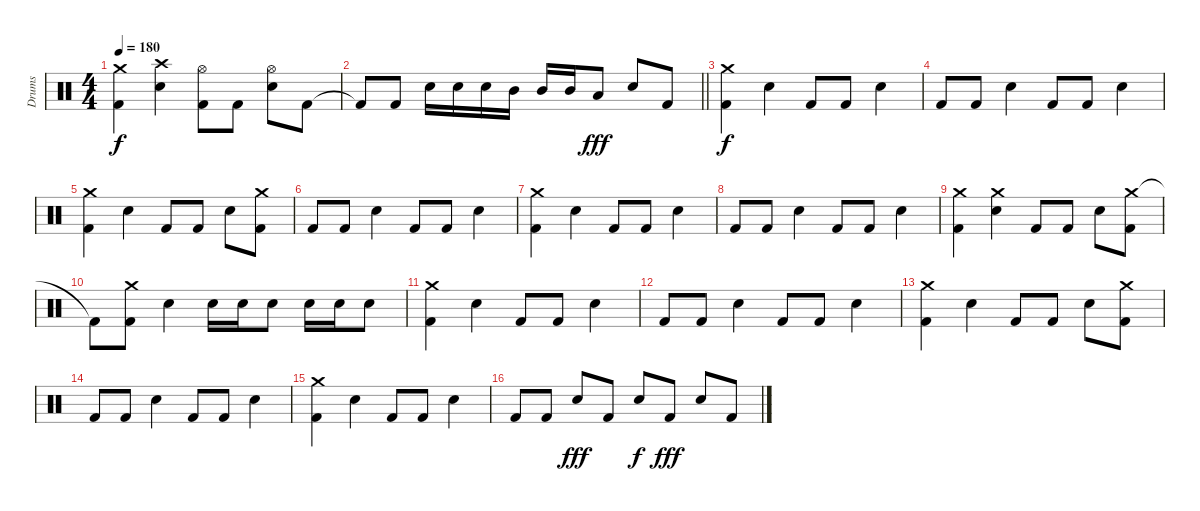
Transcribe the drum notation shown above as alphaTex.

\track ("Drums" "Drums") {instrument percussion}
\staff {score}
\articulation defaults
\ts (4 4)
\tempo 180
\clef neutral
\ks c
("Crash medium (hit)" "Kick (hit) 2").4{dy f} ("Crash high (hit)" "Electric Snare (hit)").4 ("Hi-Hat (open)" "Kick (hit) 2").8 "Kick (hit) 2".8 ("Hi-Hat (open)" "Electric Snare (hit)").8 "Kick (hit) 2".8 |
\barLineRight lightlight "Kick (hit) 2"{t}.8 "Kick (hit) 2".8 "Electric Snare (hit)".16 "Electric Snare (hit)".16 "Electric Snare (hit)".16 "Mid Tom (hit)".16 "Mid Tom (hit)".16 "Mid Tom (hit)".16 "Low Tom (hit)".8{dy fff} "Electric Snare (hit)".8 "Kick (hit) 2".8
|
("Crash medium (hit)" "Kick (hit) 2").4{dy f} "Electric Snare (hit)".4 "Kick (hit) 2".8 "Kick (hit) 2".8 "Electric Snare (hit)".4 |
"Kick (hit) 2".8 "Kick (hit) 2".8 "Electric Snare (hit)".4 "Kick (hit) 2".8 "Kick (hit) 2".8 "Electric Snare (hit)".4 |
("Crash medium (hit)" "Kick (hit) 2").4 "Electric Snare (hit)".4 "Kick (hit) 2".8 "Kick (hit) 2".8 "Electric Snare (hit)".8 ("Crash medium (hit)" "Kick (hit) 2").8 |
"Kick (hit) 2".8 "Kick (hit) 2".8 "Electric Snare (hit)".4 "Kick (hit) 2".8 "Kick (hit) 2".8 "Electric Snare (hit)".4 |
("Crash medium (hit)" "Kick (hit) 2").4 "Electric Snare (hit)".4 "Kick (hit) 2".8 "Kick (hit) 2".8 "Electric Snare (hit)".4 |
"Kick (hit) 2".8 "Kick (hit) 2".8 "Electric Snare (hit)".4 "Kick (hit) 2".8 "Kick (hit) 2".8 "Electric Snare (hit)".4 |
("Crash medium (hit)" "Kick (hit) 2").4 ("Crash medium (hit)" "Electric Snare (hit)").4 "Kick (hit) 2".8 "Kick (hit) 2".8 "Electric Snare (hit)".8 ("Crash medium (hit)" "Kick (hit) 2").8 |
"Kick (hit) 2"{t}.8 ("Crash medium (hit)" "Kick (hit) 2").8 "Electric Snare (hit)".4 "Electric Snare (hit)".16 "Electric Snare (hit)".16 "Electric Snare (hit)".8 "Electric Snare (hit)".16 "Electric Snare (hit)".16 "Electric Snare (hit)".8 |
("Crash medium (hit)" "Kick (hit) 2").4 "Electric Snare (hit)".4 "Kick (hit) 2".8 "Kick (hit) 2".8 "Electric Snare (hit)".4 |
"Kick (hit) 2".8 "Kick (hit) 2".8 "Electric Snare (hit)".4 "Kick (hit) 2".8 "Kick (hit) 2".8 "Electric Snare (hit)".4 |
("Crash medium (hit)" "Kick (hit) 2").4 "Electric Snare (hit)".4 "Kick (hit) 2".8 "Kick (hit) 2".8 "Electric Snare (hit)".8 ("Crash medium (hit)" "Kick (hit) 2").8 |
"Kick (hit) 2".8 "Kick (hit) 2".8 "Electric Snare (hit)".4 "Kick (hit) 2".8 "Kick (hit) 2".8 "Electric Snare (hit)".4 |
("Crash medium (hit)" "Kick (hit) 2").4 "Electric Snare (hit)".4 "Kick (hit) 2".8 "Kick (hit) 2".8 "Electric Snare (hit)".4 |
"Kick (hit) 2".8 "Kick (hit) 2".8 "Electric Snare (hit)".8{dy fff} "Kick (hit) 2".8 "Electric Snare (hit)".8{dy f} "Kick (hit) 2".8{dy fff} "Electric Snare (hit)".8 "Kick (hit) 2".8
